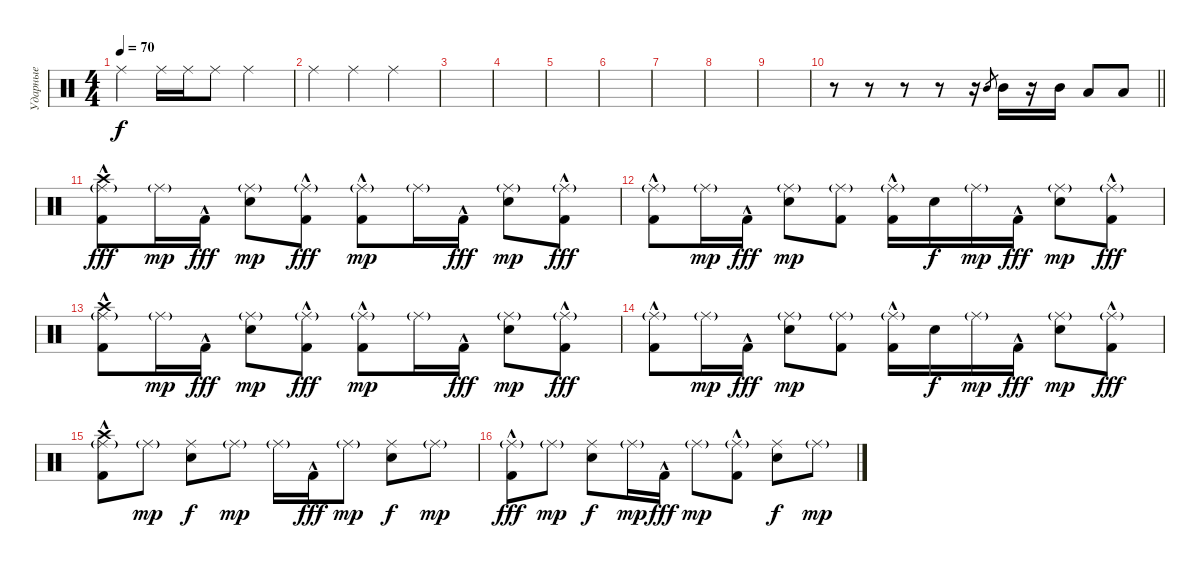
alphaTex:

\track ("Ударные" "Ударные") {instrument percussion}
\staff {score}
\articulation defaults
\ts (4 4)
\tempo 70
\clef neutral
\ks c "Ride (middle)".4{dy f} "Ride (middle)".16 "Ride (middle)".16 "Ride (middle)".8 "Ride (middle)".2
|
"Ride (middle)".4 "Ride (middle)".4 "Ride (middle)".2 |
|
|
|
|
|
|
|
\barLineRight lightlight
r.8 r.8 r.8 r.8 r.16 "Mid Tom (hit)".8{gr} "Mid Tom (hit)".16 r.16 "Mid Tom (hit)".16 "Low Tom (hit)".8 "Low Floor Tom (hit)".8 |
("Ride (middle)"{g} "Crash high (hit)" "Kick (hit) 2"{hac}).8{dy fff} "Ride (middle)"{g}.16{dy mp} "Kick (hit) 2"{hac}.16{dy fff} ("Ride (middle)"{g} "Snare (hit) 2").8{dy mp} ("Ride (middle)"{g} "Kick (hit) 2"{hac}).8{dy fff} ("Kick (hit) 2"{hac} "Ride (middle)"{g}).8{dy mp} "Ride (middle)"{g}.16 "Kick (hit) 2"{hac}.16{dy fff} ("Ride (middle)"{g} "Snare (hit) 2").8{dy mp} ("Ride (middle)"{g} "Kick (hit) 2"{hac}).8{dy fff} |
("Ride (middle)"{g} "Kick (hit) 2"{hac}).8 "Ride (middle)"{g}.16{dy mp} "Kick (hit) 2"{hac}.16{dy fff} ("Ride (middle)"{g} "Snare (hit) 2").8{dy mp} ("Ride (middle)"{g} "Kick (hit) 2").8 ("Kick (hit) 2"{hac} "Ride (middle)"{g}).16 "Snare (hit) 2".16{dy f} "Ride (middle)"{g}.16{dy mp} "Kick (hit) 2"{hac}.16{dy fff} ("Ride (middle)"{g} "Snare (hit) 2").8{dy mp} ("Ride (middle)"{g} "Kick (hit) 2"{hac}).8{dy fff} |
("Ride (middle)"{g} "Crash high (hit)" "Kick (hit) 2"{hac}).8 "Ride (middle)"{g}.16{dy mp} "Kick (hit) 2"{hac}.16{dy fff} ("Ride (middle)"{g} "Snare (hit) 2").8{dy mp} ("Ride (middle)"{g} "Kick (hit) 2"{hac}).8{dy fff} ("Kick (hit) 2"{hac} "Ride (middle)"{g}).8{dy mp} "Ride (middle)"{g}.16 "Kick (hit) 2"{hac}.16{dy fff} ("Ride (middle)"{g} "Snare (hit) 2").8{dy mp} ("Ride (middle)"{g} "Kick (hit) 2"{hac}).8{dy fff} |
("Ride (middle)"{g} "Kick (hit) 2"{hac}).8 "Ride (middle)"{g}.16{dy mp} "Kick (hit) 2"{hac}.16{dy fff} ("Ride (middle)"{g} "Snare (hit) 2").8{dy mp} ("Ride (middle)"{g} "Kick (hit) 2").8 ("Kick (hit) 2"{hac} "Ride (middle)"{g}).16 "Snare (hit) 2".16{dy f} "Ride (middle)"{g}.16{dy mp} "Kick (hit) 2"{hac}.16{dy fff} ("Ride (middle)"{g} "Snare (hit) 2").8{dy mp} ("Ride (middle)"{g} "Kick (hit) 2"{hac}).8{dy fff} |
("Ride (middle)"{g} "Kick (hit) 2"{hac} "Crash high (hit)").8 "Ride (middle)"{g}.8{dy mp} ("Snare (hit) 2" "Ride (middle)").8{dy f} "Ride (middle)"{g}.8{dy mp} "Ride (middle)"{g}.16 "Kick (hit) 2"{hac}.16{dy fff} "Ride (middle)"{g}.8{dy mp} ("Ride (middle)" "Snare (hit) 2").8{dy f} "Ride (middle)"{g}.8{dy mp} |
("Ride (middle)"{g} "Kick (hit) 2"{hac}).8{dy fff} "Ride (middle)"{g}.8{dy mp} ("Snare (hit) 2" "Ride (middle)").8{dy f} "Ride (middle)"{g}.16{dy mp} "Kick (hit) 2"{hac}.16{dy fff} "Ride (middle)"{g}.8{dy mp} ("Kick (hit) 2"{hac} "Ride (middle)"{g}).8 ("Ride (middle)" "Snare (hit) 2").8{dy f} "Ride (middle)"{g}.8{dy mp}
